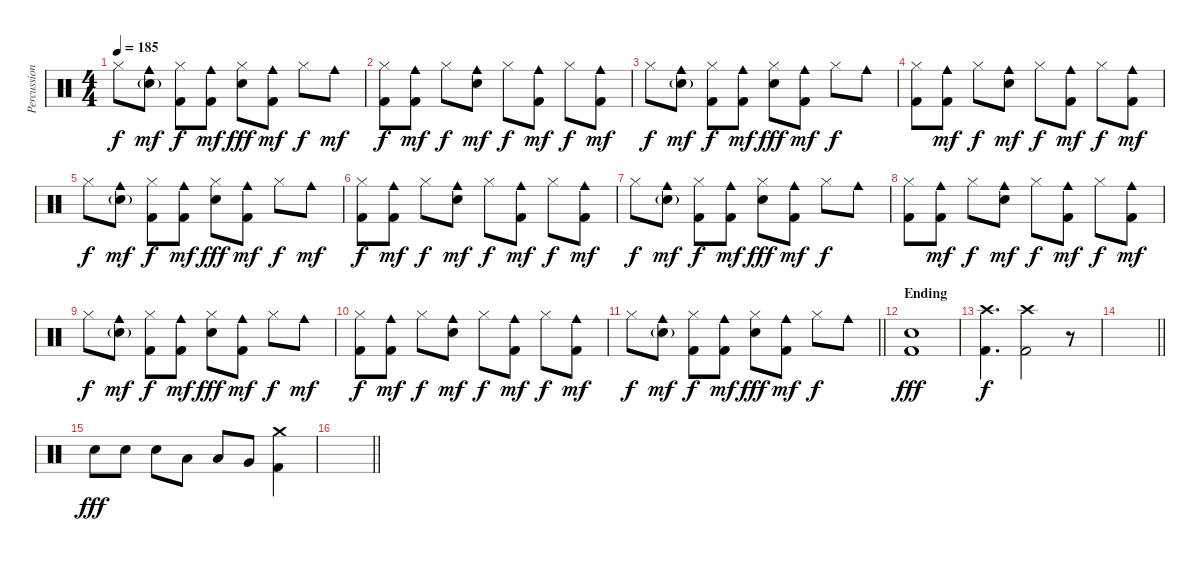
\track ("Percussions" "Percussion") {instrument percussion}
\staff {score}
\articulation defaults
\ts (4 4)
\tempo 185
\clef neutral
\ks c "Hi-Hat (closed)".8{dy f}
("Electric Snare (hit)"{g} "Cowbell medium (hit)").8{dy mf} ("Kick (hit) 2" "Hi-Hat (closed)").8{dy f} ("Kick (hit) 2" "Cowbell medium (hit)").8{dy mf} ("Electric Snare (hit)" "Hi-Hat (closed)").8{dy fff} ("Kick (hit) 2" "Cowbell medium (hit)").8{dy mf} "Hi-Hat (closed)".8{dy f} "Cowbell medium (hit)".8{dy mf} |
("Kick (hit) 2" "Hi-Hat (closed)").8{dy f} ("Kick (hit) 2" "Cowbell medium (hit)").8{dy mf} "Hi-Hat (closed)".8{dy f} ("Electric Snare (hit)" "Cowbell medium (hit)").8{dy mf} "Hi-Hat (closed)".8{dy f} ("Kick (hit) 2" "Cowbell medium (hit)").8{dy mf} "Hi-Hat (closed)".8{dy f} ("Kick (hit) 2" "Cowbell medium (hit)").8{dy mf} |
"Hi-Hat (closed)".8{dy f} ("Electric Snare (hit)"{g} "Cowbell medium (hit)").8{dy mf} ("Kick (hit) 2" "Hi-Hat (closed)").8{dy f} ("Kick (hit) 2" "Cowbell medium (hit)").8{dy mf} ("Electric Snare (hit)" "Hi-Hat (closed)").8{dy fff} ("Kick (hit) 2" "Cowbell medium (hit)").8{dy mf} "Hi-Hat (closed)".8{dy f} "Cowbell medium (hit)".8 |
("Kick (hit) 2" "Hi-Hat (closed)").8 ("Kick (hit) 2" "Cowbell medium (hit)").8{dy mf} "Hi-Hat (closed)".8{dy f} ("Electric Snare (hit)" "Cowbell medium (hit)").8{dy mf} "Hi-Hat (closed)".8{dy f} ("Kick (hit) 2" "Cowbell medium (hit)").8{dy mf} "Hi-Hat (closed)".8{dy f} ("Kick (hit) 2" "Cowbell medium (hit)").8{dy mf} |
"Hi-Hat (closed)".8{dy f} ("Electric Snare (hit)"{g} "Cowbell medium (hit)").8{dy mf} ("Kick (hit) 2" "Hi-Hat (closed)").8{dy f} ("Kick (hit) 2" "Cowbell medium (hit)").8{dy mf} ("Electric Snare (hit)" "Hi-Hat (closed)").8{dy fff} ("Kick (hit) 2" "Cowbell medium (hit)").8{dy mf} "Hi-Hat (closed)".8{dy f} "Cowbell medium (hit)".8{dy mf} |
("Kick (hit) 2" "Hi-Hat (closed)").8{dy f} ("Kick (hit) 2" "Cowbell medium (hit)").8{dy mf} "Hi-Hat (closed)".8{dy f} ("Electric Snare (hit)" "Cowbell medium (hit)").8{dy mf} "Hi-Hat (closed)".8{dy f} ("Kick (hit) 2" "Cowbell medium (hit)").8{dy mf} "Hi-Hat (closed)".8{dy f} ("Kick (hit) 2" "Cowbell medium (hit)").8{dy mf} |
"Hi-Hat (closed)".8{dy f} ("Electric Snare (hit)"{g} "Cowbell medium (hit)").8{dy mf} ("Kick (hit) 2" "Hi-Hat (closed)").8{dy f} ("Kick (hit) 2" "Cowbell medium (hit)").8{dy mf} ("Electric Snare (hit)" "Hi-Hat (closed)").8{dy fff} ("Kick (hit) 2" "Cowbell medium (hit)").8{dy mf} "Hi-Hat (closed)".8{dy f} "Cowbell medium (hit)".8 |
("Kick (hit) 2" "Hi-Hat (closed)").8 ("Kick (hit) 2" "Cowbell medium (hit)").8{dy mf} "Hi-Hat (closed)".8{dy f} ("Electric Snare (hit)" "Cowbell medium (hit)").8{dy mf} "Hi-Hat (closed)".8{dy f} ("Kick (hit) 2" "Cowbell medium (hit)").8{dy mf} "Hi-Hat (closed)".8{dy f} ("Kick (hit) 2" "Cowbell medium (hit)").8{dy mf} |
"Hi-Hat (closed)".8{dy f} ("Electric Snare (hit)"{g} "Cowbell medium (hit)").8{dy mf} ("Kick (hit) 2" "Hi-Hat (closed)").8{dy f} ("Kick (hit) 2" "Cowbell medium (hit)").8{dy mf} ("Electric Snare (hit)" "Hi-Hat (closed)").8{dy fff} ("Kick (hit) 2" "Cowbell medium (hit)").8{dy mf} "Hi-Hat (closed)".8{dy f} "Cowbell medium (hit)".8{dy mf} |
("Kick (hit) 2" "Hi-Hat (closed)").8{dy f} ("Kick (hit) 2" "Cowbell medium (hit)").8{dy mf} "Hi-Hat (closed)".8{dy f} ("Electric Snare (hit)" "Cowbell medium (hit)").8{dy mf} "Hi-Hat (closed)".8{dy f} ("Kick (hit) 2" "Cowbell medium (hit)").8{dy mf} "Hi-Hat (closed)".8{dy f} ("Kick (hit) 2" "Cowbell medium (hit)").8{dy mf} |
\barLineRight lightlight "Hi-Hat (closed)".8{dy f}
("Electric Snare (hit)"{g} "Cowbell medium (hit)").8{dy mf} ("Kick (hit) 2" "Hi-Hat (closed)").8{dy f} ("Kick (hit) 2" "Cowbell medium (hit)").8{dy mf} ("Electric Snare (hit)" "Hi-Hat (closed)").8{dy fff} ("Kick (hit) 2" "Cowbell medium (hit)").8{dy mf} "Hi-Hat (closed)".8{dy f} "Cowbell medium (hit)".8 |
\section ("" "Ending")
("Electric Snare (hit)" "Kick (hit) 2").1{dy fff} |
("Crash high (hit)" "Kick (hit) 2").4{d dy f} ("Crash high (hit)" "Kick (hit) 2").2 r.8 |
\barLineRight lightlight
|
"Electric Snare (hit)".8{dy fff} "Electric Snare (hit)".8 "Electric Snare (hit)".8 "Low Tom (hit)".8 "Low Tom (hit)".8 "Very Low Tom (hit)".8 ("Crash medium (hit)" "Kick (hit) 2").4 |
\barLineRight lightlight
